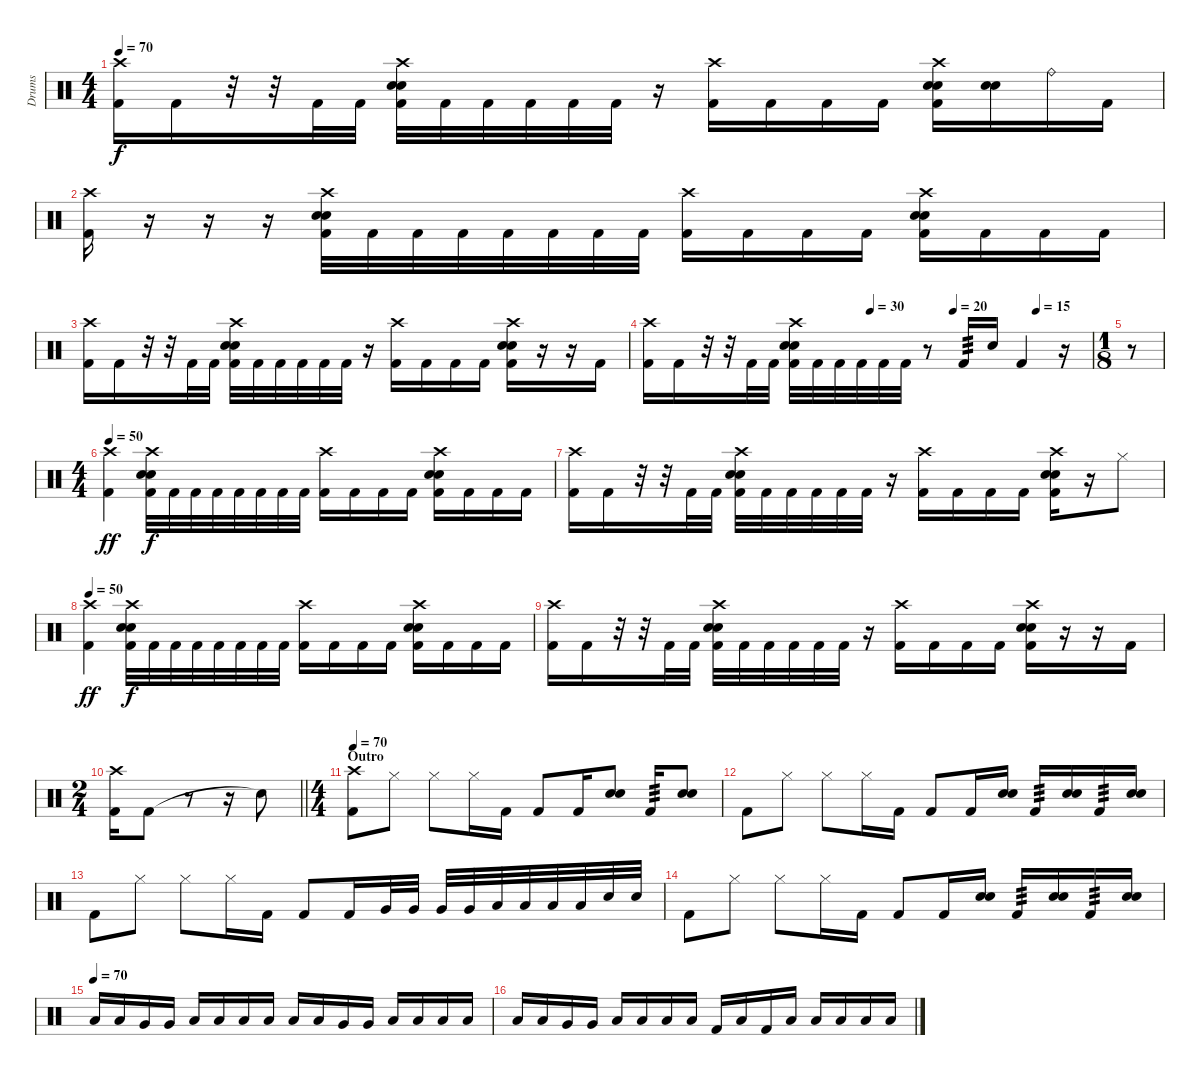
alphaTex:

\track ("Drums" "Drums") {instrument percussion}
\staff {score}
\articulation defaults
\ts (4 4)
\tempo 70
\clef neutral
\ks c
("Crash high (hit)" "Kick (hit) 2").16{dy f} "Kick (hit) 2".16 r.32 r.32 "Kick (hit) 2".32 "Kick (hit) 2".32 ("Crash high (hit)" "Snare (hit) 2" "Electric Snare (hit)" "Kick (hit) 2").32 "Kick (hit) 2".32 "Kick (hit) 2".32 "Kick (hit) 2".32 "Kick (hit) 2".32 "Kick (hit) 2".32 r.16 ("Crash high (hit)" "Kick (hit) 2").16 "Kick (hit) 2".16 "Kick (hit) 2".16 "Kick (hit) 2".16 ("Crash high (hit)" "Electric Snare (hit)" "Snare (hit) 2" "Kick (hit) 2").16 ("Electric Snare (hit)" "Snare (hit) 2").16 "Ride (bell)".16 "Kick (hit) 2".16 |
("Crash high (hit)" "Kick (hit) 2").16 r.16 r.16 r.16 ("Crash high (hit)" "Snare (hit) 2" "Electric Snare (hit)" "Kick (hit) 2").32 "Kick (hit) 2".32 "Kick (hit) 2".32 "Kick (hit) 2".32 "Kick (hit) 2".32 "Kick (hit) 2".32 "Kick (hit) 2".32 "Kick (hit) 2".32 ("Crash high (hit)" "Kick (hit) 2").16 "Kick (hit) 2".16 "Kick (hit) 2".16 "Kick (hit) 2".16 ("Crash high (hit)" "Snare (hit) 2" "Electric Snare (hit)" "Kick (hit) 2").16 "Kick (hit) 2".16 "Kick (hit) 2".16 "Kick (hit) 2".16 |
("Crash high (hit)" "Kick (hit) 2").16 "Kick (hit) 2".16 r.32 r.32 "Kick (hit) 2".32 "Kick (hit) 2".32 ("Crash high (hit)" "Snare (hit) 2" "Electric Snare (hit)" "Kick (hit) 2").32 "Kick (hit) 2".32 "Kick (hit) 2".32 "Kick (hit) 2".32 "Kick (hit) 2".32 "Kick (hit) 2".32 r.16 ("Crash high (hit)" "Kick (hit) 2").16 "Kick (hit) 2".16 "Kick (hit) 2".16 "Kick (hit) 2".16 ("Crash high (hit)" "Electric Snare (hit)" "Snare (hit) 2" "Kick (hit) 2").16 r.16 r.16 "Kick (hit) 2".16 |
\tempo (30 0.5)
\tempo (20 0.6875)
\tempo (15 0.875)
("Crash high (hit)" "Kick (hit) 2").16 "Kick (hit) 2".16 r.32 r.32 "Kick (hit) 2".32 "Kick (hit) 2".32 ("Crash high (hit)" "Snare (hit) 2" "Electric Snare (hit)" "Kick (hit) 2").32 "Kick (hit) 2".32 "Kick (hit) 2".32 "Kick (hit) 2".32 "Kick (hit) 2".32 "Kick (hit) 2".32 r.8 "Kick (hit) 2".16{tp 3} "Electric Snare (hit)".16 "Kick (hit) 2".4 r.16 |
\ts (1 8)
r.8 |
\ts (4 4)
\tempo 50
("Crash high (hit)" "Kick (hit) 2").4{dy ff} ("Crash high (hit)" "Electric Snare (hit)" "Snare (hit) 2" "Kick (hit) 2").32{dy f} "Kick (hit) 2".32 "Kick (hit) 2".32 "Kick (hit) 2".32 "Kick (hit) 2".32 "Kick (hit) 2".32 "Kick (hit) 2".32 "Kick (hit) 2".32 ("Crash high (hit)" "Kick (hit) 2").16 "Kick (hit) 2".16 "Kick (hit) 2".16 "Kick (hit) 2".16 ("Crash high (hit)" "Electric Snare (hit)" "Snare (hit) 2" "Kick (hit) 2").16 "Kick (hit) 2".16 "Kick (hit) 2".16 "Kick (hit) 2".16 |
("Crash high (hit)" "Kick (hit) 2").16 "Kick (hit) 2".16 r.32 r.32 "Kick (hit) 2".32 "Kick (hit) 2".32 ("Crash high (hit)" "Snare (hit) 2" "Electric Snare (hit)" "Kick (hit) 2").32 "Kick (hit) 2".32 "Kick (hit) 2".32 "Kick (hit) 2".32 "Kick (hit) 2".32 "Kick (hit) 2".32 r.16 ("Crash high (hit)" "Kick (hit) 2").16 "Kick (hit) 2".16 "Kick (hit) 2".16 "Kick (hit) 2".16 ("Crash high (hit)" "Snare (hit) 2" "Electric Snare (hit)" "Kick (hit) 2").16 r.16 "Hi-Hat (closed)".8 |
\tempo 50
("Crash high (hit)" "Kick (hit) 2").4{dy ff} ("Crash high (hit)" "Electric Snare (hit)" "Snare (hit) 2" "Kick (hit) 2").32{dy f} "Kick (hit) 2".32 "Kick (hit) 2".32 "Kick (hit) 2".32 "Kick (hit) 2".32 "Kick (hit) 2".32 "Kick (hit) 2".32 "Kick (hit) 2".32 ("Crash high (hit)" "Kick (hit) 2").16 "Kick (hit) 2".16 "Kick (hit) 2".16 "Kick (hit) 2".16 ("Crash high (hit)" "Electric Snare (hit)" "Snare (hit) 2" "Kick (hit) 2").16 "Kick (hit) 2".16 "Kick (hit) 2".16 "Kick (hit) 2".16 |
("Crash high (hit)" "Kick (hit) 2").16 "Kick (hit) 2".16 r.32 r.32 "Kick (hit) 2".32 "Kick (hit) 2".32 ("Crash high (hit)" "Snare (hit) 2" "Electric Snare (hit)" "Kick (hit) 2").32 "Kick (hit) 2".32 "Kick (hit) 2".32 "Kick (hit) 2".32 "Kick (hit) 2".32 "Kick (hit) 2".32 r.16 ("Crash high (hit)" "Kick (hit) 2").16 "Kick (hit) 2".16 "Kick (hit) 2".16 "Kick (hit) 2".16 ("Crash high (hit)" "Electric Snare (hit)" "Snare (hit) 2" "Kick (hit) 2").16 r.16 r.16 "Kick (hit) 2".16 |
\ts (2 4)
\barLineRight lightlight
("Crash high (hit)" "Kick (hit) 2").16 "Kick (hit) 2".8 r.8 r.16 "Snare (hit)"{t}.8 |
\ts (4 4)
\section ("" "Outro")
\tempo 70
("Crash high (hit)" "Kick (hit) 2").8 "Hi-Hat (closed)".8 "Hi-Hat (closed)".8 "Hi-Hat (closed)".16 "Kick (hit) 2".16 "Kick (hit) 2".8 "Kick (hit) 2".16 ("Snare (hit) 2" "Electric Snare (hit)").8 "Kick (hit) 2".16{tp 3} ("Snare (hit) 2" "Electric Snare (hit)").8 |
"Kick (hit) 2".8 "Hi-Hat (closed)".8 "Hi-Hat (closed)".8 "Hi-Hat (closed)".16 "Kick (hit) 2".16 "Kick (hit) 2".8 "Kick (hit) 2".16 ("Snare (hit) 2" "Electric Snare (hit)").16 "Kick (hit) 2".16{tp 3} ("Snare (hit) 2" "Electric Snare (hit)").16 "Kick (hit) 2".16{tp 3} ("Snare (hit) 2" "Electric Snare (hit)").16 |
"Kick (hit) 2".8 "Hi-Hat (closed)".8 "Hi-Hat (closed)".8 "Hi-Hat (closed)".16 "Kick (hit) 2".16 "Kick (hit) 2".8 "Kick (hit) 2".16 "Very Low Tom (hit)".32 "Very Low Tom (hit)".32 "Very Low Tom (hit)".32 "Very Low Tom (hit)".32 "Low Floor Tom (hit)".32 "Low Floor Tom (hit)".32 "Low Floor Tom (hit)".32 "Low Floor Tom (hit)".32 "Electric Snare (hit)".32 "Electric Snare (hit)".32 |
"Kick (hit) 2".8 "Hi-Hat (closed)".8 "Hi-Hat (closed)".8 "Hi-Hat (closed)".16 "Kick (hit) 2".16 "Kick (hit) 2".8 "Kick (hit) 2".16 ("Snare (hit) 2" "Electric Snare (hit)").16 "Kick (hit) 2".16{tp 3} ("Snare (hit) 2" "Electric Snare (hit)").16 "Kick (hit) 2".16{tp 3} ("Snare (hit) 2" "Electric Snare (hit)").16 |
\tempo (70)
"Low Tom (hit)".16 "Low Tom (hit)".16 "Very Low Tom (hit)".16 "Very Low Tom (hit)".16 "Low Floor Tom (hit)".16 "Low Floor Tom (hit)".16 "Low Floor Tom (hit)".16 "Low Floor Tom (hit)".16 "Low Tom (hit)".16 "Low Tom (hit)".16 "Very Low Tom (hit)".16 "Very Low Tom (hit)".16 "Low Floor Tom (hit)".16 "Low Floor Tom (hit)".16 "Low Floor Tom (hit)".16 "Low Floor Tom (hit)".16 |
"Low Tom (hit)".16 "Low Tom (hit)".16 "Very Low Tom (hit)".16 "Very Low Tom (hit)".16 "Low Floor Tom (hit)".16 "Low Floor Tom (hit)".16 "Low Floor Tom (hit)".16 "Low Floor Tom (hit)".16 "Kick (hit) 2".16 "Low Floor Tom (hit)".16 "Kick (hit) 2".16 "Low Floor Tom (hit)".16 "Low Floor Tom (hit)".16 "Low Floor Tom (hit)".16 "Low Floor Tom (hit)".16 "Low Floor Tom (hit)".16
